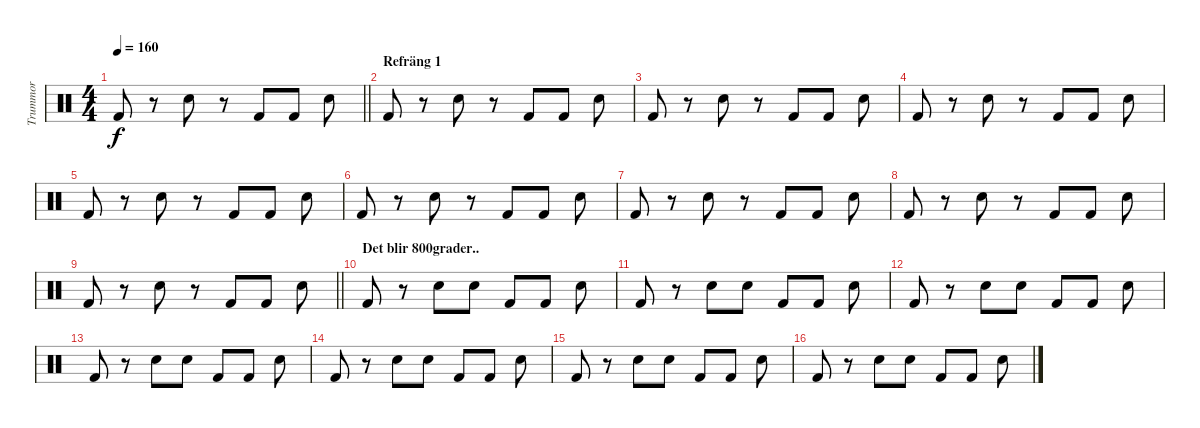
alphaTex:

\track ("Trummor" "Trummor") {instrument percussion}
\staff {score}
\articulation defaults
\ts (4 4)
\tempo 160
\clef neutral
\barLineRight lightlight
\ks c "Kick (hit) 2".8{dy f}
r.8 "Snare (hit) 2".8 r.8 "Kick (hit) 2".8 "Kick (hit) 2".8 "Snare (hit) 2".8 |
\section ("" "Refräng 1")
"Kick (hit) 2".8 r.8 "Snare (hit) 2".8 r.8 "Kick (hit) 2".8 "Kick (hit) 2".8 "Snare (hit) 2".8 |
"Kick (hit) 2".8 r.8 "Snare (hit) 2".8 r.8 "Kick (hit) 2".8 "Kick (hit) 2".8 "Snare (hit) 2".8 |
"Kick (hit) 2".8 r.8 "Snare (hit) 2".8 r.8 "Kick (hit) 2".8 "Kick (hit) 2".8 "Snare (hit) 2".8 |
"Kick (hit) 2".8 r.8 "Snare (hit) 2".8 r.8 "Kick (hit) 2".8 "Kick (hit) 2".8 "Snare (hit) 2".8 |
"Kick (hit) 2".8 r.8 "Snare (hit) 2".8 r.8 "Kick (hit) 2".8 "Kick (hit) 2".8 "Snare (hit) 2".8 |
"Kick (hit) 2".8 r.8 "Snare (hit) 2".8 r.8 "Kick (hit) 2".8 "Kick (hit) 2".8 "Snare (hit) 2".8 |
"Kick (hit) 2".8 r.8 "Snare (hit) 2".8 r.8 "Kick (hit) 2".8 "Kick (hit) 2".8 "Snare (hit) 2".8 |
\barLineRight lightlight "Kick (hit) 2".8
r.8 "Snare (hit) 2".8 r.8 "Kick (hit) 2".8 "Kick (hit) 2".8 "Snare (hit) 2".8 |
\section ("" "Det blir 800grader..")
"Kick (hit) 2".8 r.8 "Snare (hit) 2".8 "Snare (hit) 2".8 "Kick (hit) 2".8 "Kick (hit) 2".8 "Snare (hit) 2".8 |
"Kick (hit) 2".8 r.8 "Snare (hit) 2".8 "Snare (hit) 2".8 "Kick (hit) 2".8 "Kick (hit) 2".8 "Snare (hit) 2".8 |
"Kick (hit) 2".8 r.8 "Snare (hit) 2".8 "Snare (hit) 2".8 "Kick (hit) 2".8 "Kick (hit) 2".8 "Snare (hit) 2".8 |
"Kick (hit) 2".8 r.8 "Snare (hit) 2".8 "Snare (hit) 2".8 "Kick (hit) 2".8 "Kick (hit) 2".8 "Snare (hit) 2".8 |
"Kick (hit) 2".8 r.8 "Snare (hit) 2".8 "Snare (hit) 2".8 "Kick (hit) 2".8 "Kick (hit) 2".8 "Snare (hit) 2".8 |
"Kick (hit) 2".8 r.8 "Snare (hit) 2".8 "Snare (hit) 2".8 "Kick (hit) 2".8 "Kick (hit) 2".8 "Snare (hit) 2".8 |
"Kick (hit) 2".8 r.8 "Snare (hit) 2".8 "Snare (hit) 2".8 "Kick (hit) 2".8 "Kick (hit) 2".8 "Snare (hit) 2".8
